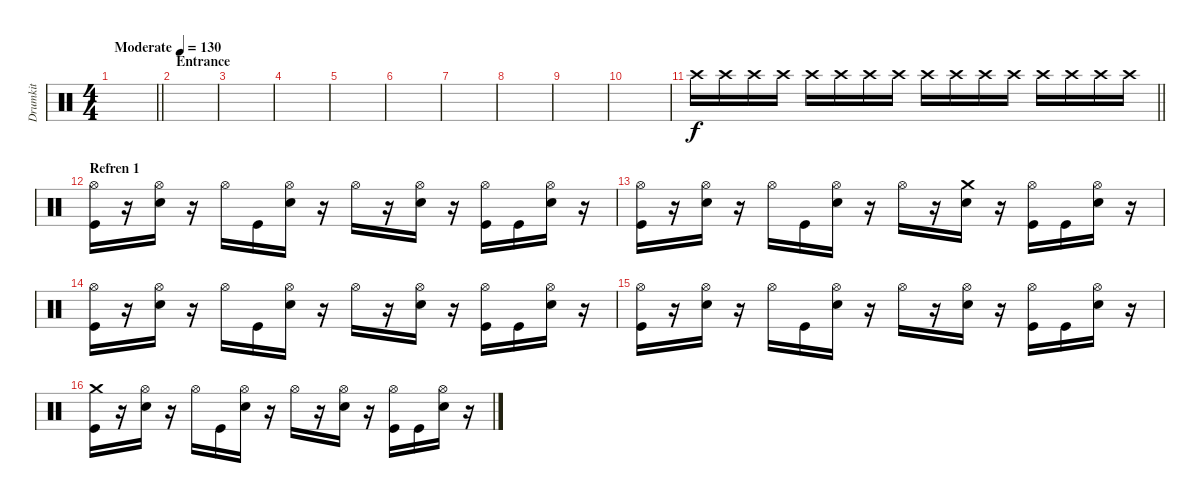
\track ("Drumkit" "Drumkit") {instrument percussion}
\staff {score}
\articulation defaults
\ts (4 4)
\tempo (130 "Moderate")
\clef neutral
\barLineRight lightlight
\ks c
|
\section ("" "Entrance")
|
|
|
|
|
|
|
|
|
\barLineRight lightlight "Crash high (hit)".16 "Crash high (hit)".16 "Crash high (hit)".16 "Crash high (hit)".16 "Crash high (hit)".16 "Crash high (hit)".16 "Crash high (hit)".16 "Crash high (hit)".16 "Crash high (hit)".16 "Crash high (hit)".16 "Crash high (hit)".16 "Crash high (hit)".16 "Crash high (hit)".16 "Crash high (hit)".16 "Crash high (hit)".16 "Crash high (hit)".16
|
\section ("" "Refren 1")
("Hi-Hat (open)" "Kick (hit)").16{dy f} r.16 ("Hi-Hat (open)" "Snare (hit) 2").16 r.16 "Hi-Hat (open)".16 "Kick (hit)".16 ("Hi-Hat (open)" "Snare (hit) 2").16 r.16 "Hi-Hat (open)".16 r.16 ("Hi-Hat (open)" "Snare (hit) 2").16 r.16 ("Hi-Hat (open)" "Kick (hit)").16 "Kick (hit)".16 ("Hi-Hat (open)" "Snare (hit) 2").16 r.16 |
("Hi-Hat (open)" "Kick (hit)").16 r.16 ("Hi-Hat (open)" "Snare (hit) 2").16 r.16 "Hi-Hat (open)".16 "Kick (hit)".16 ("Hi-Hat (open)" "Snare (hit) 2").16 r.16 "Hi-Hat (open)".16 r.16 ("Snare (hit) 2" "Crash medium (hit)").16 r.16 ("Hi-Hat (open)" "Kick (hit)").16 "Kick (hit)".16 ("Hi-Hat (open)" "Snare (hit) 2").16 r.16 |
("Hi-Hat (open)" "Kick (hit)").16 r.16 ("Hi-Hat (open)" "Snare (hit) 2").16 r.16 "Hi-Hat (open)".16 "Kick (hit)".16 ("Hi-Hat (open)" "Snare (hit) 2").16 r.16 "Hi-Hat (open)".16 r.16 ("Hi-Hat (open)" "Snare (hit) 2").16 r.16 ("Hi-Hat (open)" "Kick (hit)").16 "Kick (hit)".16 ("Hi-Hat (open)" "Snare (hit) 2").16 r.16 |
("Hi-Hat (open)" "Kick (hit)").16 r.16 ("Hi-Hat (open)" "Snare (hit) 2").16 r.16 "Hi-Hat (open)".16 "Kick (hit)".16 ("Hi-Hat (open)" "Snare (hit) 2").16 r.16 "Hi-Hat (open)".16 r.16 ("Hi-Hat (open)" "Snare (hit) 2").16 r.16 ("Hi-Hat (open)" "Kick (hit)").16 "Kick (hit)".16 ("Hi-Hat (open)" "Snare (hit) 2").16 r.16 |
("Kick (hit)" "Crash medium (hit)").16 r.16 ("Hi-Hat (open)" "Snare (hit) 2").16 r.16 "Hi-Hat (open)".16 "Kick (hit)".16 ("Hi-Hat (open)" "Snare (hit) 2").16 r.16 "Hi-Hat (open)".16 r.16 ("Hi-Hat (open)" "Snare (hit) 2").16 r.16 ("Hi-Hat (open)" "Kick (hit)").16 "Kick (hit)".16 ("Hi-Hat (open)" "Snare (hit) 2").16 r.16
